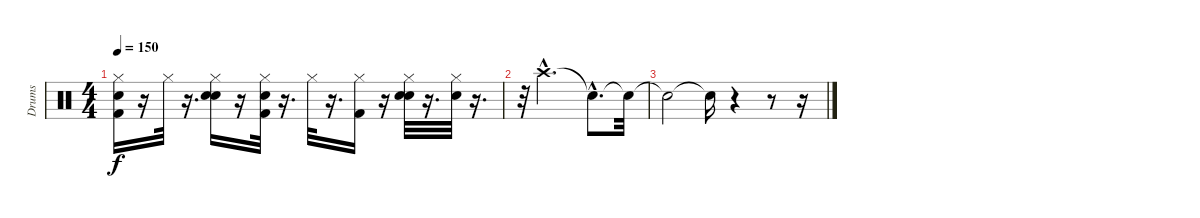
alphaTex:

\track ("Drums" "Drums") {instrument percussion}
\staff {score}
\articulation defaults
\ts (4 4)
\tempo 150
\clef neutral
\ks c
("Kick (hit) 2" "Hand Clap (hit)" "Hi-Hat (closed)").16{dy f} r.16 "Hi-Hat (closed)".32 r.16{d} ("Electric Snare (hit)" "Hand Clap (hit)" "Hi-Hat (closed)").16 r.16 ("Kick (hit) 2" "Hand Clap (hit)" "Hi-Hat (closed)").32 r.16{d} "Hi-Hat (closed)".32 r.16{d} ("Kick (hit) 2" "Hi-Hat (closed)").16 r.16 ("Electric Snare (hit)" "Hand Clap (hit)" "Hi-Hat (closed)").32 r.16{d} ("Hand Clap (hit)" "Hi-Hat (closed)").32 r.16{d} |
r.32 "Crash high (hit)"{hac}.2{d} "Snare (hit)"{hac t}.8{d} "Snare (hit)"{t}.32 |
"Snare (hit)"{t}.2 "Snare (hit)"{t}.16 r.4 r.8 r.16
